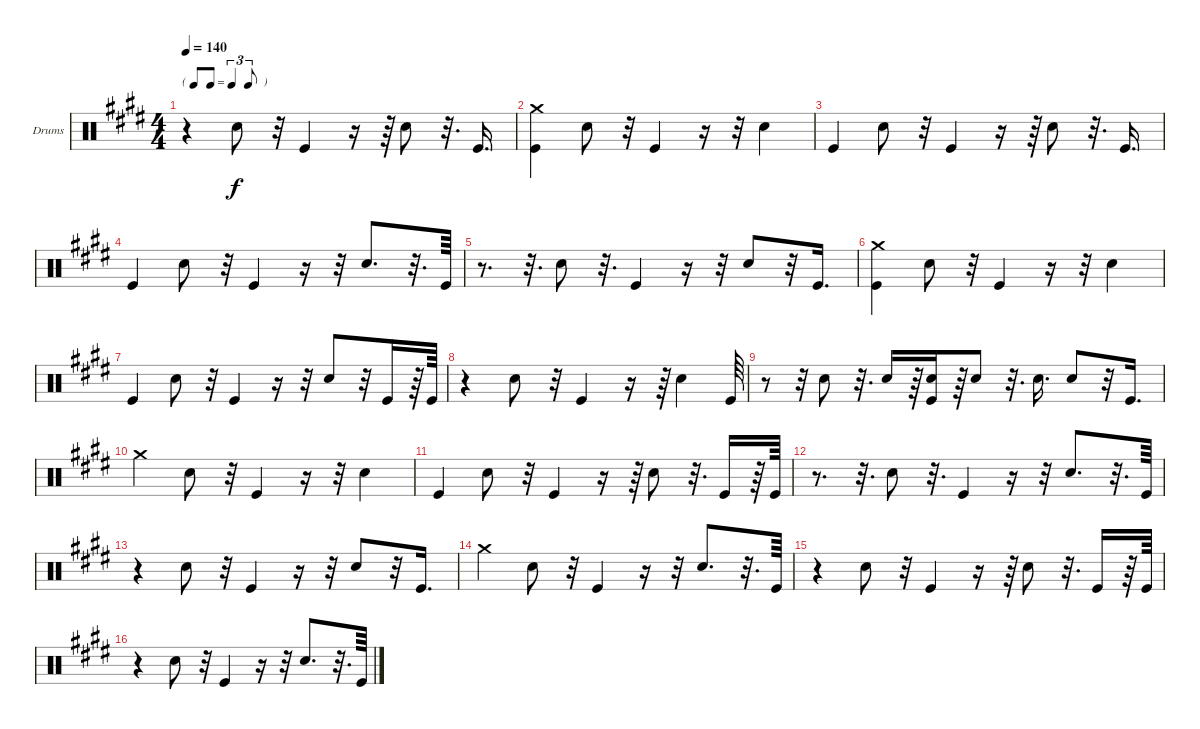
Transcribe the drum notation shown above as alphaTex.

\bracketExtendMode groupsimilarinstruments
\firstSystemTrackNameOrientation horizontal
\otherSystemsTrackNameOrientation horizontal
\track ("Drumkit" "Drums") {instrument percussion}
\staff {score}
\articulation defaults
\ts (4 4)
\tf triplet8th
\tempo 140
\clef neutral
\ks e
r.4{dy f} "Snare (hit) 2".8 r.32 "Kick (hit)".4 r.16 r.64 "Snare (hit) 2".8 r.32{d} "Kick (hit)".16{d} |
("Kick (hit)" "Crash medium (hit)").4 "Snare (hit) 2".8 r.32 "Kick (hit)".4 r.16 r.32 "Snare (hit) 2".4 |
"Kick (hit)".4 "Snare (hit) 2".8 r.32 "Kick (hit)".4 r.16 r.64 "Snare (hit) 2".8 r.32{d} "Kick (hit)".16{d} |
"Kick (hit)".4 "Snare (hit) 2".8 r.32 "Kick (hit)".4 r.16 r.32 "Snare (hit) 2".8{d} r.32{d} "Kick (hit)".64 |
r.8{d} r.32{d} "Snare (hit) 2".8 r.32{d} "Kick (hit)".4 r.16 r.32 "Snare (hit) 2".8 r.32 "Kick (hit)".16{d} |
("Kick (hit)" "Crash medium (hit)").4 "Snare (hit) 2".8 r.32 "Kick (hit)".4 r.16 r.32 "Snare (hit) 2".4 |
"Kick (hit)".4 "Snare (hit) 2".8 r.32 "Kick (hit)".4 r.16 r.32 "Snare (hit) 2".8 r.32 "Kick (hit)".16 r.64 "Kick (hit)".64 |
r.4 "Snare (hit) 2".8 r.32 "Kick (hit)".4 r.16 r.64 "Snare (hit) 2".4 "Kick (hit)".64 |
r.8 r.32 "Snare (hit) 2".8 r.32{d} "Snare (hit) 2".16 r.64 ("Kick (hit)" "Snare (hit) 2").16 r.64 "Snare (hit) 2".8 r.32{d} "Snare (hit) 2".16{d} "Snare (hit) 2".8 r.32 "Kick (hit)".16{d} |
"Crash medium (hit)".4 "Snare (hit) 2".8 r.32 "Kick (hit)".4 r.16 r.32 "Snare (hit) 2".4 |
"Kick (hit)".4 "Snare (hit) 2".8 r.32 "Kick (hit)".4 r.16 r.64 "Snare (hit) 2".8 r.32{d} "Kick (hit)".16 r.64 "Kick (hit)".64 |
r.8{d} r.32{d} "Snare (hit) 2".8 r.32{d} "Kick (hit)".4 r.16 r.32 "Snare (hit) 2".8{d} r.32{d} "Kick (hit)".64 |
r.4 "Snare (hit) 2".8 r.32 "Kick (hit)".4 r.16 r.32 "Snare (hit) 2".8 r.32 "Kick (hit)".16{d} |
"Crash medium (hit)".4 "Snare (hit) 2".8 r.32 "Kick (hit)".4 r.16 r.32 "Snare (hit) 2".8{d} r.32{d} "Kick (hit)".64 |
r.4 "Snare (hit) 2".8 r.32 "Kick (hit)".4 r.16 r.64 "Snare (hit) 2".8 r.32{d} "Kick (hit)".16 r.64 "Kick (hit)".64 |
r.4 "Snare (hit) 2".8 r.32 "Kick (hit)".4 r.16 r.32 "Snare (hit) 2".8{d} r.32{d} "Kick (hit)".64
